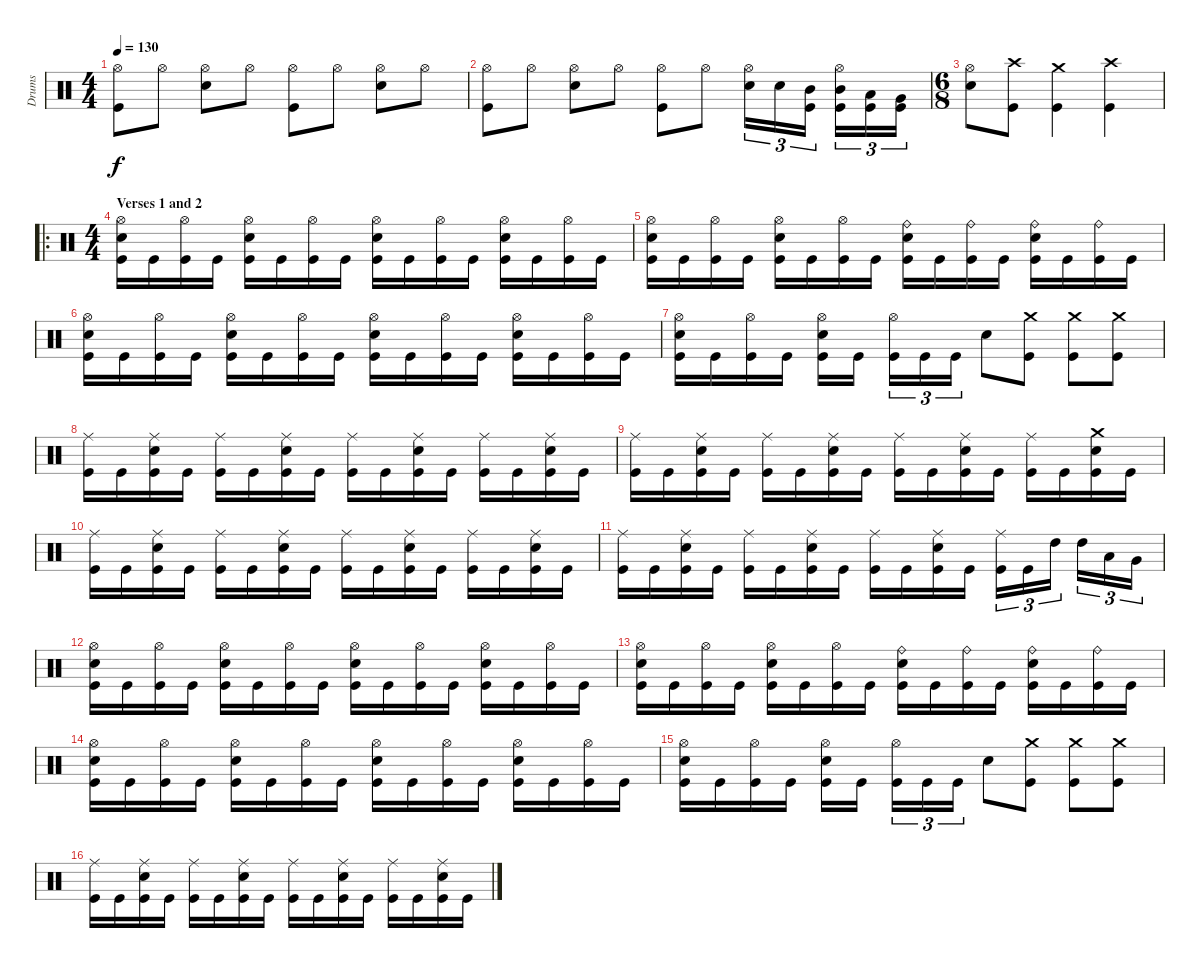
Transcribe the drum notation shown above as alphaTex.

\track ("Drums" "Drums") {instrument percussion}
\staff {score}
\articulation defaults
\ts (4 4)
\tempo 130
\clef neutral
\ks c
("Hi-Hat (open)" "Kick (hit)").8{dy f} "Hi-Hat (open)".8 ("Hi-Hat (open)" "Electric Snare (hit)").8 "Hi-Hat (open)".8 ("Hi-Hat (open)" "Kick (hit)").8 "Hi-Hat (open)".8 ("Hi-Hat (open)" "Electric Snare (hit)").8 "Hi-Hat (open)".8 |
("Hi-Hat (open)" "Kick (hit)").8 "Hi-Hat (open)".8 ("Hi-Hat (open)" "Electric Snare (hit)").8 "Hi-Hat (open)".8 ("Hi-Hat (open)" "Kick (hit)").8 "Hi-Hat (open)".8 ("Hi-Hat (open)" "Electric Snare (hit)").16{tu (3 2)} "Electric Snare (hit)".16{tu (3 2)} ("Mid Tom (hit)" "Kick (hit)").16{tu (3 2)} ("Hi-Hat (open)" "Mid Tom (hit)" "Kick (hit)").16{tu (3 2)} ("Low Tom (hit)" "Kick (hit)").16{tu (3 2)} ("Very Low Tom (hit)" "Kick (hit)").16{tu (3 2)} |
\ts (6 8)
("Hi-Hat (open)" "Electric Snare (hit)").8 ("Crash high (hit)" "Kick (hit)").8 ("Crash medium (hit)" "Kick (hit)").4 ("Crash high (hit)" "Kick (hit)").4 |
\ro
\ts (4 4)
\section ("" "Verses 1 and 2")
("Hi-Hat (open)" "Electric Snare (hit)" "Kick (hit)").16 "Kick (hit)".16 ("Hi-Hat (open)" "Kick (hit)").16 "Kick (hit)".16 ("Hi-Hat (open)" "Electric Snare (hit)" "Kick (hit)").16 "Kick (hit)".16 ("Hi-Hat (open)" "Kick (hit)").16 "Kick (hit)".16 ("Hi-Hat (open)" "Electric Snare (hit)" "Kick (hit)").16 "Kick (hit)".16 ("Hi-Hat (open)" "Kick (hit)").16 "Kick (hit)".16 ("Hi-Hat (open)" "Electric Snare (hit)" "Kick (hit)").16 "Kick (hit)".16 ("Hi-Hat (open)" "Kick (hit)").16 "Kick (hit)".16 |
("Hi-Hat (open)" "Electric Snare (hit)" "Kick (hit)").16 "Kick (hit)".16 ("Hi-Hat (open)" "Kick (hit)").16 "Kick (hit)".16 ("Hi-Hat (open)" "Electric Snare (hit)" "Kick (hit)").16 "Kick (hit)".16 ("Hi-Hat (open)" "Kick (hit)").16 "Kick (hit)".16 ("Ride (bell)" "Electric Snare (hit)" "Kick (hit)").16 "Kick (hit)".16 ("Ride (bell)" "Kick (hit)").16 "Kick (hit)".16 ("Ride (bell)" "Electric Snare (hit)" "Kick (hit)").16 "Kick (hit)".16 ("Ride (bell)" "Kick (hit)").16 "Kick (hit)".16 |
("Hi-Hat (open)" "Electric Snare (hit)" "Kick (hit)").16 "Kick (hit)".16 ("Hi-Hat (open)" "Kick (hit)").16 "Kick (hit)".16 ("Hi-Hat (open)" "Electric Snare (hit)" "Kick (hit)").16 "Kick (hit)".16 ("Hi-Hat (open)" "Kick (hit)").16 "Kick (hit)".16 ("Hi-Hat (open)" "Electric Snare (hit)" "Kick (hit)").16 "Kick (hit)".16 ("Hi-Hat (open)" "Kick (hit)").16 "Kick (hit)".16 ("Hi-Hat (open)" "Electric Snare (hit)" "Kick (hit)").16 "Kick (hit)".16 ("Hi-Hat (open)" "Kick (hit)").16 "Kick (hit)".16 |
("Hi-Hat (open)" "Electric Snare (hit)" "Kick (hit)").16 "Kick (hit)".16 ("Hi-Hat (open)" "Kick (hit)").16 "Kick (hit)".16 ("Hi-Hat (open)" "Electric Snare (hit)" "Kick (hit)").16 "Kick (hit)".16 ("Hi-Hat (open)" "Kick (hit)").16{tu (3 2)} "Kick (hit)".16{tu (3 2)} "Kick (hit)".16{tu (3 2)} "Electric Snare (hit)".8 ("Crash medium (hit)" "Kick (hit)").8 ("Crash medium (hit)" "Kick (hit)").8 ("Crash medium (hit)" "Kick (hit)").8 |
("Ride (middle)" "Kick (hit)").16 "Kick (hit)".16 ("Ride (middle)" "Electric Snare (hit)" "Kick (hit)").16 "Kick (hit)".16 ("Ride (middle)" "Kick (hit)").16 "Kick (hit)".16 ("Ride (middle)" "Electric Snare (hit)" "Kick (hit)").16 "Kick (hit)".16 ("Ride (middle)" "Kick (hit)").16 "Kick (hit)".16 ("Ride (middle)" "Electric Snare (hit)" "Kick (hit)").16 "Kick (hit)".16 ("Ride (middle)" "Kick (hit)").16 "Kick (hit)".16 ("Ride (middle)" "Electric Snare (hit)" "Kick (hit)").16 "Kick (hit)".16 |
("Ride (middle)" "Kick (hit)").16 "Kick (hit)".16 ("Ride (middle)" "Electric Snare (hit)" "Kick (hit)").16 "Kick (hit)".16 ("Ride (middle)" "Kick (hit)").16 "Kick (hit)".16 ("Ride (middle)" "Electric Snare (hit)" "Kick (hit)").16 "Kick (hit)".16 ("Ride (middle)" "Kick (hit)").16 "Kick (hit)".16 ("Ride (middle)" "Electric Snare (hit)" "Kick (hit)").16 "Kick (hit)".16 ("Ride (middle)" "Kick (hit)").16 "Kick (hit)".16 ("Crash medium (hit)" "Electric Snare (hit)" "Kick (hit)").16 "Kick (hit)".16 |
("Ride (middle)" "Kick (hit)").16 "Kick (hit)".16 ("Ride (middle)" "Electric Snare (hit)" "Kick (hit)").16 "Kick (hit)".16 ("Ride (middle)" "Kick (hit)").16 "Kick (hit)".16 ("Ride (middle)" "Electric Snare (hit)" "Kick (hit)").16 "Kick (hit)".16 ("Ride (middle)" "Kick (hit)").16 "Kick (hit)".16 ("Ride (middle)" "Electric Snare (hit)" "Kick (hit)").16 "Kick (hit)".16 ("Ride (middle)" "Kick (hit)").16 "Kick (hit)".16 ("Ride (middle)" "Electric Snare (hit)" "Kick (hit)").16 "Kick (hit)".16 |
("Ride (middle)" "Kick (hit)").16 "Kick (hit)".16 ("Ride (middle)" "Electric Snare (hit)" "Kick (hit)").16 "Kick (hit)".16 ("Ride (middle)" "Kick (hit)").16 "Kick (hit)".16 ("Ride (middle)" "Electric Snare (hit)" "Kick (hit)").16 "Kick (hit)".16 ("Ride (middle)" "Kick (hit)").16 "Kick (hit)".16 ("Ride (middle)" "Electric Snare (hit)" "Kick (hit)").16 "Kick (hit)".16 ("Ride (middle)" "Kick (hit)").16{tu (3 2)} "Kick (hit)".16{tu (3 2)} "High Tom (hit)".16{tu (3 2)} "High Tom (hit)".16{tu (3 2)} "Low Tom (hit)".16{tu (3 2)} "Very Low Tom (hit)".16{tu (3 2)} |
("Hi-Hat (open)" "Electric Snare (hit)" "Kick (hit)").16 "Kick (hit)".16 ("Hi-Hat (open)" "Kick (hit)").16 "Kick (hit)".16 ("Hi-Hat (open)" "Electric Snare (hit)" "Kick (hit)").16 "Kick (hit)".16 ("Hi-Hat (open)" "Kick (hit)").16 "Kick (hit)".16 ("Hi-Hat (open)" "Electric Snare (hit)" "Kick (hit)").16 "Kick (hit)".16 ("Hi-Hat (open)" "Kick (hit)").16 "Kick (hit)".16 ("Hi-Hat (open)" "Electric Snare (hit)" "Kick (hit)").16 "Kick (hit)".16 ("Hi-Hat (open)" "Kick (hit)").16 "Kick (hit)".16 |
("Hi-Hat (open)" "Electric Snare (hit)" "Kick (hit)").16 "Kick (hit)".16 ("Hi-Hat (open)" "Kick (hit)").16 "Kick (hit)".16 ("Hi-Hat (open)" "Electric Snare (hit)" "Kick (hit)").16 "Kick (hit)".16 ("Hi-Hat (open)" "Kick (hit)").16 "Kick (hit)".16 ("Ride (bell)" "Electric Snare (hit)" "Kick (hit)").16 "Kick (hit)".16 ("Ride (bell)" "Kick (hit)").16 "Kick (hit)".16 ("Ride (bell)" "Electric Snare (hit)" "Kick (hit)").16 "Kick (hit)".16 ("Ride (bell)" "Kick (hit)").16 "Kick (hit)".16 |
("Hi-Hat (open)" "Electric Snare (hit)" "Kick (hit)").16 "Kick (hit)".16 ("Hi-Hat (open)" "Kick (hit)").16 "Kick (hit)".16 ("Hi-Hat (open)" "Electric Snare (hit)" "Kick (hit)").16 "Kick (hit)".16 ("Hi-Hat (open)" "Kick (hit)").16 "Kick (hit)".16 ("Hi-Hat (open)" "Electric Snare (hit)" "Kick (hit)").16 "Kick (hit)".16 ("Hi-Hat (open)" "Kick (hit)").16 "Kick (hit)".16 ("Hi-Hat (open)" "Electric Snare (hit)" "Kick (hit)").16 "Kick (hit)".16 ("Hi-Hat (open)" "Kick (hit)").16 "Kick (hit)".16 |
("Hi-Hat (open)" "Electric Snare (hit)" "Kick (hit)").16 "Kick (hit)".16 ("Hi-Hat (open)" "Kick (hit)").16 "Kick (hit)".16 ("Hi-Hat (open)" "Electric Snare (hit)" "Kick (hit)").16 "Kick (hit)".16 ("Hi-Hat (open)" "Kick (hit)").16{tu (3 2)} "Kick (hit)".16{tu (3 2)} "Kick (hit)".16{tu (3 2)} "Electric Snare (hit)".8 ("Crash medium (hit)" "Kick (hit)").8 ("Crash medium (hit)" "Kick (hit)").8 ("Crash medium (hit)" "Kick (hit)").8 |
("Ride (middle)" "Kick (hit)").16 "Kick (hit)".16 ("Ride (middle)" "Electric Snare (hit)" "Kick (hit)").16 "Kick (hit)".16 ("Ride (middle)" "Kick (hit)").16 "Kick (hit)".16 ("Ride (middle)" "Electric Snare (hit)" "Kick (hit)").16 "Kick (hit)".16 ("Ride (middle)" "Kick (hit)").16 "Kick (hit)".16 ("Ride (middle)" "Electric Snare (hit)" "Kick (hit)").16 "Kick (hit)".16 ("Ride (middle)" "Kick (hit)").16 "Kick (hit)".16 ("Ride (middle)" "Electric Snare (hit)" "Kick (hit)").16 "Kick (hit)".16
